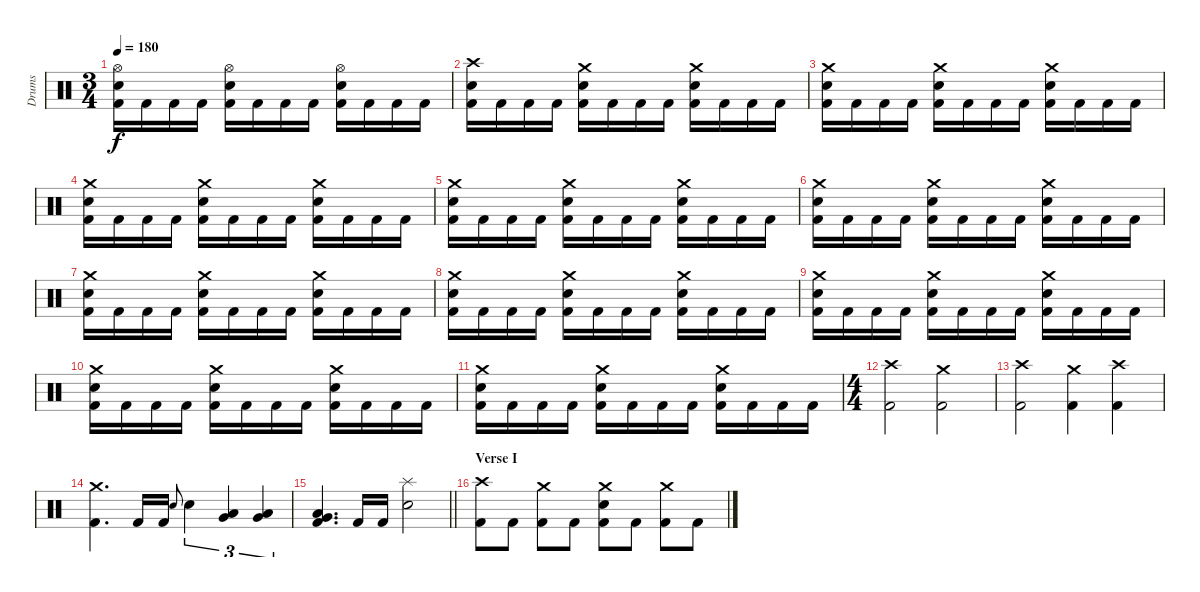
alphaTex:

\track ("Drums" "Drums") {instrument percussion}
\staff {score}
\articulation defaults
\ts (3 4)
\tempo 180
\clef neutral
\ks c
("Hi-Hat (open)" "Electric Snare (hit)" "Kick (hit) 2").16{dy f} "Kick (hit) 2".16 "Kick (hit) 2".16 "Kick (hit) 2".16 ("Hi-Hat (open)" "Electric Snare (hit)" "Kick (hit) 2").16 "Kick (hit) 2".16 "Kick (hit) 2".16 "Kick (hit) 2".16 ("Hi-Hat (open)" "Electric Snare (hit)" "Kick (hit) 2").16 "Kick (hit) 2".16 "Kick (hit) 2".16 "Kick (hit) 2".16 |
("Crash high (hit)" "Electric Snare (hit)" "Kick (hit) 2").16 "Kick (hit) 2".16 "Kick (hit) 2".16 "Kick (hit) 2".16 ("Crash medium (hit)" "Electric Snare (hit)" "Kick (hit) 2").16 "Kick (hit) 2".16 "Kick (hit) 2".16 "Kick (hit) 2".16 ("Crash medium (hit)" "Electric Snare (hit)" "Kick (hit) 2").16 "Kick (hit) 2".16 "Kick (hit) 2".16 "Kick (hit) 2".16 |
("Crash medium (hit)" "Electric Snare (hit)" "Kick (hit) 2").16 "Kick (hit) 2".16 "Kick (hit) 2".16 "Kick (hit) 2".16 ("Crash medium (hit)" "Electric Snare (hit)" "Kick (hit) 2").16 "Kick (hit) 2".16 "Kick (hit) 2".16 "Kick (hit) 2".16 ("Crash medium (hit)" "Electric Snare (hit)" "Kick (hit) 2").16 "Kick (hit) 2".16 "Kick (hit) 2".16 "Kick (hit) 2".16 |
("Crash medium (hit)" "Electric Snare (hit)" "Kick (hit) 2").16 "Kick (hit) 2".16 "Kick (hit) 2".16 "Kick (hit) 2".16 ("Crash medium (hit)" "Electric Snare (hit)" "Kick (hit) 2").16 "Kick (hit) 2".16 "Kick (hit) 2".16 "Kick (hit) 2".16 ("Crash medium (hit)" "Electric Snare (hit)" "Kick (hit) 2").16 "Kick (hit) 2".16 "Kick (hit) 2".16 "Kick (hit) 2".16 |
("Crash medium (hit)" "Electric Snare (hit)" "Kick (hit) 2").16 "Kick (hit) 2".16 "Kick (hit) 2".16 "Kick (hit) 2".16 ("Crash medium (hit)" "Electric Snare (hit)" "Kick (hit) 2").16 "Kick (hit) 2".16 "Kick (hit) 2".16 "Kick (hit) 2".16 ("Crash medium (hit)" "Electric Snare (hit)" "Kick (hit) 2").16 "Kick (hit) 2".16 "Kick (hit) 2".16 "Kick (hit) 2".16 |
("Crash medium (hit)" "Electric Snare (hit)" "Kick (hit) 2").16 "Kick (hit) 2".16 "Kick (hit) 2".16 "Kick (hit) 2".16 ("Crash medium (hit)" "Electric Snare (hit)" "Kick (hit) 2").16 "Kick (hit) 2".16 "Kick (hit) 2".16 "Kick (hit) 2".16 ("Crash medium (hit)" "Electric Snare (hit)" "Kick (hit) 2").16 "Kick (hit) 2".16 "Kick (hit) 2".16 "Kick (hit) 2".16 |
("Crash medium (hit)" "Electric Snare (hit)" "Kick (hit) 2").16 "Kick (hit) 2".16 "Kick (hit) 2".16 "Kick (hit) 2".16 ("Crash medium (hit)" "Electric Snare (hit)" "Kick (hit) 2").16 "Kick (hit) 2".16 "Kick (hit) 2".16 "Kick (hit) 2".16 ("Crash medium (hit)" "Electric Snare (hit)" "Kick (hit) 2").16 "Kick (hit) 2".16 "Kick (hit) 2".16 "Kick (hit) 2".16 |
("Crash medium (hit)" "Electric Snare (hit)" "Kick (hit) 2").16 "Kick (hit) 2".16 "Kick (hit) 2".16 "Kick (hit) 2".16 ("Crash medium (hit)" "Electric Snare (hit)" "Kick (hit) 2").16 "Kick (hit) 2".16 "Kick (hit) 2".16 "Kick (hit) 2".16 ("Crash medium (hit)" "Electric Snare (hit)" "Kick (hit) 2").16 "Kick (hit) 2".16 "Kick (hit) 2".16 "Kick (hit) 2".16 |
("Crash medium (hit)" "Electric Snare (hit)" "Kick (hit) 2").16 "Kick (hit) 2".16 "Kick (hit) 2".16 "Kick (hit) 2".16 ("Crash medium (hit)" "Electric Snare (hit)" "Kick (hit) 2").16 "Kick (hit) 2".16 "Kick (hit) 2".16 "Kick (hit) 2".16 ("Crash medium (hit)" "Electric Snare (hit)" "Kick (hit) 2").16 "Kick (hit) 2".16 "Kick (hit) 2".16 "Kick (hit) 2".16 |
("Crash medium (hit)" "Electric Snare (hit)" "Kick (hit) 2").16 "Kick (hit) 2".16 "Kick (hit) 2".16 "Kick (hit) 2".16 ("Crash medium (hit)" "Electric Snare (hit)" "Kick (hit) 2").16 "Kick (hit) 2".16 "Kick (hit) 2".16 "Kick (hit) 2".16 ("Crash medium (hit)" "Electric Snare (hit)" "Kick (hit) 2").16 "Kick (hit) 2".16 "Kick (hit) 2".16 "Kick (hit) 2".16 |
("Crash medium (hit)" "Electric Snare (hit)" "Kick (hit) 2").16 "Kick (hit) 2".16 "Kick (hit) 2".16 "Kick (hit) 2".16 ("Crash medium (hit)" "Electric Snare (hit)" "Kick (hit) 2").16 "Kick (hit) 2".16 "Kick (hit) 2".16 "Kick (hit) 2".16 ("Crash medium (hit)" "Electric Snare (hit)" "Kick (hit) 2").16 "Kick (hit) 2".16 "Kick (hit) 2".16 "Kick (hit) 2".16 |
\ts (4 4)
("Crash high (hit)" "Kick (hit) 2").2 ("Crash medium (hit)" "Kick (hit) 2").2 |
("Crash high (hit)" "Kick (hit) 2").2 ("Crash medium (hit)" "Kick (hit) 2").4 ("Crash high (hit)" "Kick (hit) 2").4 |
("Crash medium (hit)" "Kick (hit) 2").4{d} "Kick (hit) 2".16 "Kick (hit) 2".16 "Electric Snare (hit)".8{gr onbeat} "Electric Snare (hit)".4{tu (3 2)} ("Low Tom (hit)" "Very Low Tom (hit)").4{tu (3 2)} ("Very Low Tom (hit)" "Low Floor Tom (hit)").4{tu (3 2)} |
\barLineRight lightlight
("Very Low Tom (hit)" "Low Floor Tom (hit)" "Kick (hit) 2").4{d} "Kick (hit) 2".16 "Kick (hit) 2".16 ("Splash (hit)" "Electric Snare (hit)").2 |
\section ("" "Verse I")
("Crash high (hit)" "Kick (hit) 2").8 "Kick (hit) 2".8 ("Crash medium (hit)" "Kick (hit) 2").8 "Kick (hit) 2".8 ("Crash medium (hit)" "Electric Snare (hit)" "Kick (hit) 2").8 "Kick (hit) 2".8 ("Crash medium (hit)" "Kick (hit) 2").8 "Kick (hit) 2".8
